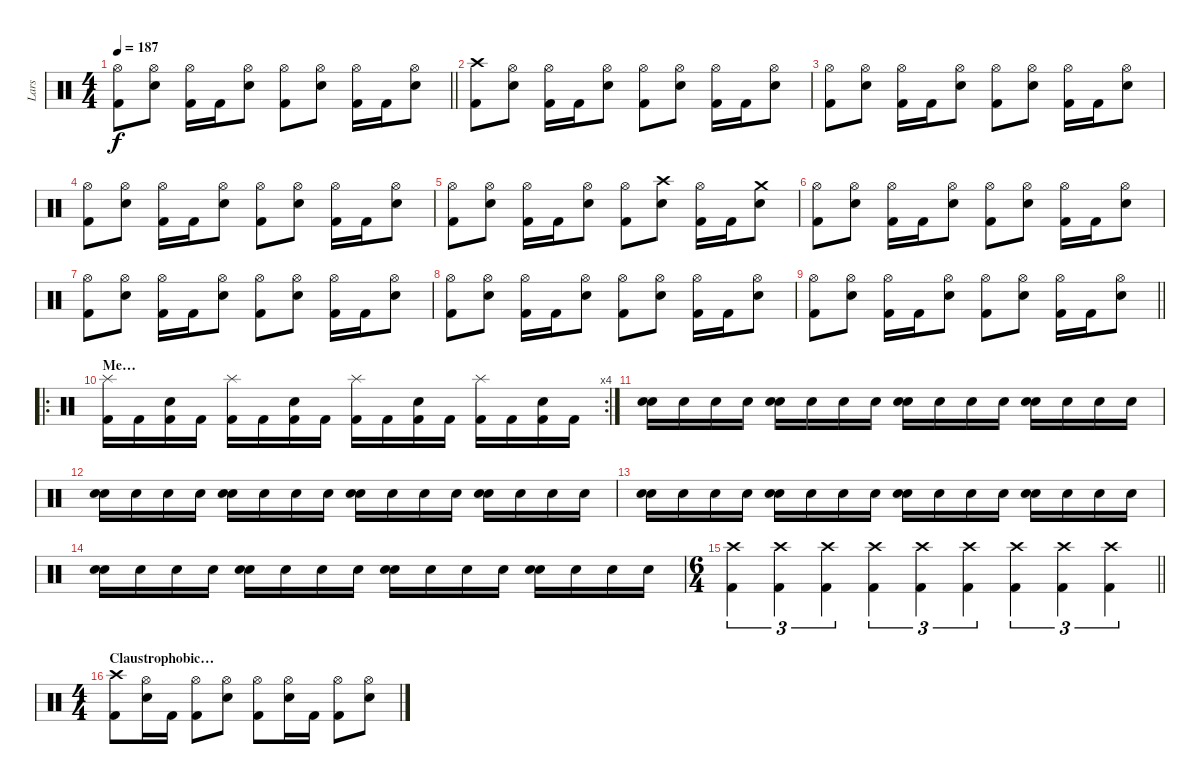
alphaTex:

\track ("Lars" "Lars") {instrument percussion}
\staff {score}
\articulation defaults
\ts (4 4)
\tempo 187
\clef neutral
\barLineRight lightlight
\ks c
("Hi-Hat (open)" "Kick (hit) 2").8{dy f} ("Hi-Hat (open)" "Snare (hit) 2").8 ("Hi-Hat (open)" "Kick (hit) 2").16 "Kick (hit) 2".16 ("Hi-Hat (open)" "Snare (hit) 2").8 ("Hi-Hat (open)" "Kick (hit) 2").8 ("Hi-Hat (open)" "Snare (hit) 2").8 ("Hi-Hat (open)" "Kick (hit) 2").16 "Kick (hit) 2".16 ("Hi-Hat (open)" "Snare (hit) 2").8 |
("Crash high (hit)" "Kick (hit) 2").8 ("Hi-Hat (open)" "Snare (hit) 2").8 ("Hi-Hat (open)" "Kick (hit) 2").16 "Kick (hit) 2".16 ("Hi-Hat (open)" "Snare (hit) 2").8 ("Hi-Hat (open)" "Kick (hit) 2").8 ("Hi-Hat (open)" "Snare (hit) 2").8 ("Hi-Hat (open)" "Kick (hit) 2").16 "Kick (hit) 2".16 ("Hi-Hat (open)" "Snare (hit) 2").8 |
("Hi-Hat (open)" "Kick (hit) 2").8 ("Hi-Hat (open)" "Snare (hit) 2").8 ("Hi-Hat (open)" "Kick (hit) 2").16 "Kick (hit) 2".16 ("Hi-Hat (open)" "Snare (hit) 2").8 ("Hi-Hat (open)" "Kick (hit) 2").8 ("Hi-Hat (open)" "Snare (hit) 2").8 ("Hi-Hat (open)" "Kick (hit) 2").16 "Kick (hit) 2".16 ("Hi-Hat (open)" "Snare (hit) 2").8 |
("Hi-Hat (open)" "Kick (hit) 2").8 ("Hi-Hat (open)" "Snare (hit) 2").8 ("Hi-Hat (open)" "Kick (hit) 2").16 "Kick (hit) 2".16 ("Hi-Hat (open)" "Snare (hit) 2").8 ("Hi-Hat (open)" "Kick (hit) 2").8 ("Hi-Hat (open)" "Snare (hit) 2").8 ("Hi-Hat (open)" "Kick (hit) 2").16 "Kick (hit) 2".16 ("Hi-Hat (open)" "Snare (hit) 2").8 |
("Hi-Hat (open)" "Kick (hit) 2").8 ("Hi-Hat (open)" "Snare (hit) 2").8 ("Hi-Hat (open)" "Kick (hit) 2").16 "Kick (hit) 2".16 ("Hi-Hat (open)" "Snare (hit) 2").8 ("Hi-Hat (open)" "Kick (hit) 2").8 ("Crash high (hit)" "Snare (hit) 2").8 ("Hi-Hat (open)" "Kick (hit) 2").16 "Kick (hit) 2".16 ("Crash medium (hit)" "Snare (hit) 2").8 |
("Hi-Hat (open)" "Kick (hit) 2").8 ("Hi-Hat (open)" "Snare (hit) 2").8 ("Hi-Hat (open)" "Kick (hit) 2").16 "Kick (hit) 2".16 ("Hi-Hat (open)" "Snare (hit) 2").8 ("Hi-Hat (open)" "Kick (hit) 2").8 ("Hi-Hat (open)" "Snare (hit) 2").8 ("Hi-Hat (open)" "Kick (hit) 2").16 "Kick (hit) 2".16 ("Hi-Hat (open)" "Snare (hit) 2").8 |
("Hi-Hat (open)" "Kick (hit) 2").8 ("Hi-Hat (open)" "Snare (hit) 2").8 ("Hi-Hat (open)" "Kick (hit) 2").16 "Kick (hit) 2".16 ("Hi-Hat (open)" "Snare (hit) 2").8 ("Hi-Hat (open)" "Kick (hit) 2").8 ("Hi-Hat (open)" "Snare (hit) 2").8 ("Hi-Hat (open)" "Kick (hit) 2").16 "Kick (hit) 2".16 ("Hi-Hat (open)" "Snare (hit) 2").8 |
("Hi-Hat (open)" "Kick (hit) 2").8 ("Hi-Hat (open)" "Snare (hit) 2").8 ("Hi-Hat (open)" "Kick (hit) 2").16 "Kick (hit) 2".16 ("Hi-Hat (open)" "Snare (hit) 2").8 ("Hi-Hat (open)" "Kick (hit) 2").8 ("Hi-Hat (open)" "Snare (hit) 2").8 ("Hi-Hat (open)" "Kick (hit) 2").16 "Kick (hit) 2".16 ("Hi-Hat (open)" "Snare (hit) 2").8 |
\barLineRight lightlight
("Hi-Hat (open)" "Kick (hit) 2").8 ("Hi-Hat (open)" "Snare (hit) 2").8 ("Hi-Hat (open)" "Kick (hit) 2").16 "Kick (hit) 2".16 ("Hi-Hat (open)" "Snare (hit) 2").8 ("Hi-Hat (open)" "Kick (hit) 2").8 ("Hi-Hat (open)" "Snare (hit) 2").8 ("Hi-Hat (open)" "Kick (hit) 2").16 "Kick (hit) 2".16 ("Hi-Hat (open)" "Snare (hit) 2").8 |
\ro
\rc 4
\section ("" "Me…")
("Splash (hit)" "Kick (hit) 2").16 "Kick (hit) 2".16 ("Snare (hit) 2" "Kick (hit) 2").16 "Kick (hit) 2".16 ("Splash (hit)" "Kick (hit) 2").16 "Kick (hit) 2".16 ("Snare (hit) 2" "Kick (hit) 2").16 "Kick (hit) 2".16 ("Splash (hit)" "Kick (hit) 2").16 "Kick (hit) 2".16 ("Snare (hit) 2" "Kick (hit) 2").16 "Kick (hit) 2".16 ("Splash (hit)" "Kick (hit) 2").16 "Kick (hit) 2".16 ("Snare (hit) 2" "Kick (hit) 2").16 "Kick (hit) 2".16 |
("Electric Snare (hit)" "Snare (hit) 2").16 "Snare (hit) 2".16 "Snare (hit) 2".16 "Snare (hit) 2".16 ("Electric Snare (hit)" "Snare (hit) 2").16 "Snare (hit) 2".16 "Snare (hit) 2".16 "Snare (hit) 2".16 ("Electric Snare (hit)" "Snare (hit) 2").16 "Snare (hit) 2".16 "Snare (hit) 2".16 "Snare (hit) 2".16 ("Electric Snare (hit)" "Snare (hit) 2").16 "Snare (hit) 2".16 "Snare (hit) 2".16 "Snare (hit) 2".16 |
("Electric Snare (hit)" "Snare (hit) 2").16 "Snare (hit) 2".16 "Snare (hit) 2".16 "Snare (hit) 2".16 ("Electric Snare (hit)" "Snare (hit) 2").16 "Snare (hit) 2".16 "Snare (hit) 2".16 "Snare (hit) 2".16 ("Electric Snare (hit)" "Snare (hit) 2").16 "Snare (hit) 2".16 "Snare (hit) 2".16 "Snare (hit) 2".16 ("Electric Snare (hit)" "Snare (hit) 2").16 "Snare (hit) 2".16 "Snare (hit) 2".16 "Snare (hit) 2".16 |
("Electric Snare (hit)" "Snare (hit) 2").16 "Snare (hit) 2".16 "Snare (hit) 2".16 "Snare (hit) 2".16 ("Electric Snare (hit)" "Snare (hit) 2").16 "Snare (hit) 2".16 "Snare (hit) 2".16 "Snare (hit) 2".16 ("Electric Snare (hit)" "Snare (hit) 2").16 "Snare (hit) 2".16 "Snare (hit) 2".16 "Snare (hit) 2".16 ("Electric Snare (hit)" "Snare (hit) 2").16 "Snare (hit) 2".16 "Snare (hit) 2".16 "Snare (hit) 2".16 |
("Electric Snare (hit)" "Snare (hit) 2").16 "Snare (hit) 2".16 "Snare (hit) 2".16 "Snare (hit) 2".16 ("Electric Snare (hit)" "Snare (hit) 2").16 "Snare (hit) 2".16 "Snare (hit) 2".16 "Snare (hit) 2".16 ("Electric Snare (hit)" "Snare (hit) 2").16 "Snare (hit) 2".16 "Snare (hit) 2".16 "Snare (hit) 2".16 ("Electric Snare (hit)" "Snare (hit) 2").16 "Snare (hit) 2".16 "Snare (hit) 2".16 "Snare (hit) 2".16 |
\ts (6 4)
\barLineRight lightlight
("Crash high (hit)" "Kick (hit) 2").4{tu (3 2)} ("Crash high (hit)" "Kick (hit) 2").4{tu (3 2)} ("Crash high (hit)" "Kick (hit) 2").4{tu (3 2)} ("Crash high (hit)" "Kick (hit) 2").4{tu (3 2)} ("Crash high (hit)" "Kick (hit) 2").4{tu (3 2)} ("Crash high (hit)" "Kick (hit) 2").4{tu (3 2)} ("Crash high (hit)" "Kick (hit) 2").4{tu (3 2)} ("Crash high (hit)" "Kick (hit) 2").4{tu (3 2)} ("Crash high (hit)" "Kick (hit) 2").4{tu (3 2)} |
\ts (4 4)
\section ("" "Claustrophobic…")
("Crash high (hit)" "Kick (hit) 2").8 ("Hi-Hat (open)" "Snare (hit) 2").16 "Kick (hit) 2".16 ("Hi-Hat (open)" "Kick (hit) 2").8 ("Hi-Hat (open)" "Snare (hit) 2").8 ("Hi-Hat (open)" "Kick (hit) 2").8 ("Hi-Hat (open)" "Snare (hit) 2").16 "Kick (hit) 2".16 ("Hi-Hat (open)" "Kick (hit) 2").8 ("Hi-Hat (open)" "Snare (hit) 2").8
